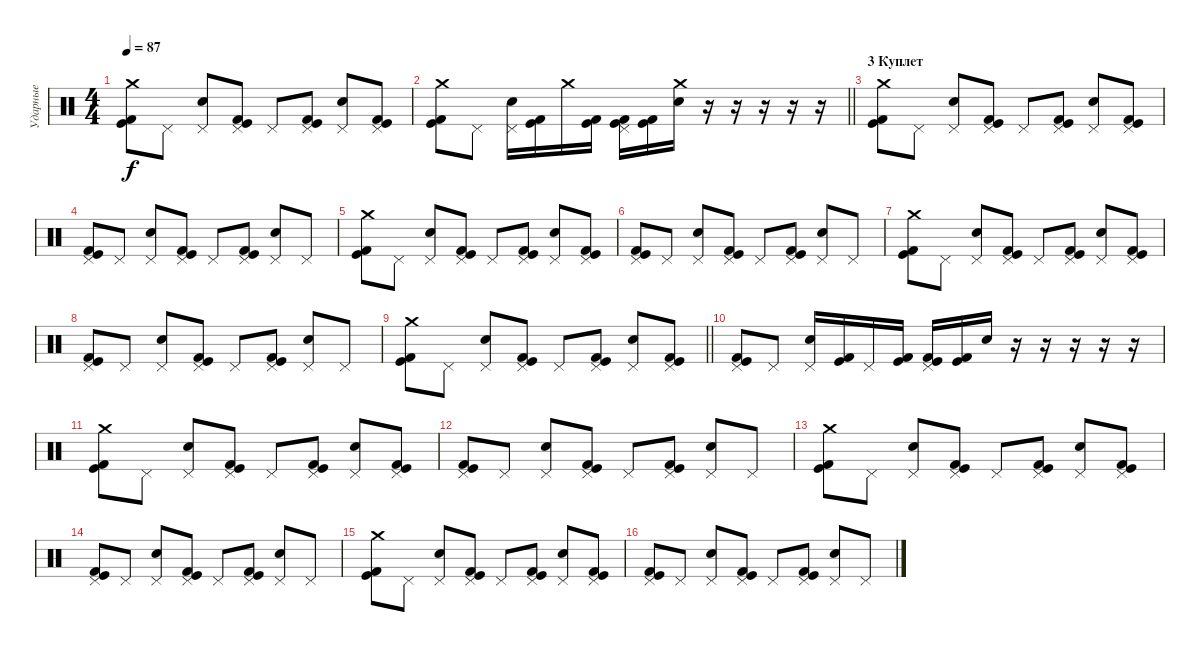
\track ("Ударные" "Ударные") {instrument percussion}
\staff {score}
\articulation defaults
\ts (4 4)
\tempo 87
\clef neutral
\ks c
("Crash medium (hit)" "Kick (hit)" "Kick (hit) 2").8{dy f} "Pedal Hi-Hat (hit)".8 ("Pedal Hi-Hat (hit)" "Electric Snare (hit)").8 ("Pedal Hi-Hat (hit)" "Kick (hit)" "Kick (hit) 2").8 "Pedal Hi-Hat (hit)".8 ("Pedal Hi-Hat (hit)" "Kick (hit)" "Kick (hit) 2").8 ("Pedal Hi-Hat (hit)" "Electric Snare (hit)").8 ("Pedal Hi-Hat (hit)" "Kick (hit)" "Kick (hit) 2").8 |
\barLineRight lightlight
("Crash medium (hit)" "Kick (hit)" "Kick (hit) 2").8 "Pedal Hi-Hat (hit)".8 ("Pedal Hi-Hat (hit)" "Electric Snare (hit)").16 ("Kick (hit)" "Kick (hit) 2").16 "Crash medium (hit)".16 ("Kick (hit)" "Kick (hit) 2").16 ("Pedal Hi-Hat (hit)" "Kick (hit)" "Kick (hit) 2").16 ("Kick (hit)" "Kick (hit) 2").16 ("Crash medium (hit)" "Electric Snare (hit)").16 r.16 r.16 r.16 r.16 r.16 |
\section ("" "3 Куплет")
("Crash medium (hit)" "Kick (hit)" "Kick (hit) 2").8 "Pedal Hi-Hat (hit)".8 ("Pedal Hi-Hat (hit)" "Electric Snare (hit)").8 ("Pedal Hi-Hat (hit)" "Kick (hit)" "Kick (hit) 2").8 "Pedal Hi-Hat (hit)".8 ("Pedal Hi-Hat (hit)" "Kick (hit)" "Kick (hit) 2").8 ("Pedal Hi-Hat (hit)" "Electric Snare (hit)").8 ("Pedal Hi-Hat (hit)" "Kick (hit)" "Kick (hit) 2").8 |
("Pedal Hi-Hat (hit)" "Kick (hit)" "Kick (hit) 2").8 "Pedal Hi-Hat (hit)".8 ("Pedal Hi-Hat (hit)" "Electric Snare (hit)").8 ("Pedal Hi-Hat (hit)" "Kick (hit)" "Kick (hit) 2").8 "Pedal Hi-Hat (hit)".8 ("Pedal Hi-Hat (hit)" "Kick (hit)" "Kick (hit) 2").8 ("Pedal Hi-Hat (hit)" "Electric Snare (hit)").8 "Pedal Hi-Hat (hit)".8 |
("Crash medium (hit)" "Kick (hit)" "Kick (hit) 2").8 "Pedal Hi-Hat (hit)".8 ("Pedal Hi-Hat (hit)" "Electric Snare (hit)").8 ("Pedal Hi-Hat (hit)" "Kick (hit)" "Kick (hit) 2").8 "Pedal Hi-Hat (hit)".8 ("Pedal Hi-Hat (hit)" "Kick (hit)" "Kick (hit) 2").8 ("Pedal Hi-Hat (hit)" "Electric Snare (hit)").8 ("Pedal Hi-Hat (hit)" "Kick (hit)" "Kick (hit) 2").8 |
("Pedal Hi-Hat (hit)" "Kick (hit)" "Kick (hit) 2").8 "Pedal Hi-Hat (hit)".8 ("Pedal Hi-Hat (hit)" "Electric Snare (hit)").8 ("Pedal Hi-Hat (hit)" "Kick (hit)" "Kick (hit) 2").8 "Pedal Hi-Hat (hit)".8 ("Pedal Hi-Hat (hit)" "Kick (hit)" "Kick (hit) 2").8 ("Pedal Hi-Hat (hit)" "Electric Snare (hit)").8 "Pedal Hi-Hat (hit)".8 |
("Crash medium (hit)" "Kick (hit)" "Kick (hit) 2").8 "Pedal Hi-Hat (hit)".8 ("Pedal Hi-Hat (hit)" "Electric Snare (hit)").8 ("Pedal Hi-Hat (hit)" "Kick (hit)" "Kick (hit) 2").8 "Pedal Hi-Hat (hit)".8 ("Pedal Hi-Hat (hit)" "Kick (hit)" "Kick (hit) 2").8 ("Pedal Hi-Hat (hit)" "Electric Snare (hit)").8 ("Pedal Hi-Hat (hit)" "Kick (hit)" "Kick (hit) 2").8 |
("Pedal Hi-Hat (hit)" "Kick (hit)" "Kick (hit) 2").8 "Pedal Hi-Hat (hit)".8 ("Pedal Hi-Hat (hit)" "Electric Snare (hit)").8 ("Pedal Hi-Hat (hit)" "Kick (hit)" "Kick (hit) 2").8 "Pedal Hi-Hat (hit)".8 ("Pedal Hi-Hat (hit)" "Kick (hit)" "Kick (hit) 2").8 ("Pedal Hi-Hat (hit)" "Electric Snare (hit)").8 "Pedal Hi-Hat (hit)".8 |
\barLineRight lightlight
("Crash medium (hit)" "Kick (hit)" "Kick (hit) 2").8 "Pedal Hi-Hat (hit)".8 ("Pedal Hi-Hat (hit)" "Electric Snare (hit)").8 ("Pedal Hi-Hat (hit)" "Kick (hit)" "Kick (hit) 2").8 "Pedal Hi-Hat (hit)".8 ("Pedal Hi-Hat (hit)" "Kick (hit)" "Kick (hit) 2").8 ("Pedal Hi-Hat (hit)" "Electric Snare (hit)").8 ("Pedal Hi-Hat (hit)" "Kick (hit)" "Kick (hit) 2").8 |
("Pedal Hi-Hat (hit)" "Kick (hit)" "Kick (hit) 2").8 "Pedal Hi-Hat (hit)".8 ("Pedal Hi-Hat (hit)" "Electric Snare (hit)").16 ("Kick (hit)" "Kick (hit) 2").16 "Pedal Hi-Hat (hit)".16 ("Kick (hit)" "Kick (hit) 2").16 ("Pedal Hi-Hat (hit)" "Kick (hit)" "Kick (hit) 2").16 ("Kick (hit)" "Kick (hit) 2").16 "Electric Snare (hit)".16 r.16 r.16 r.16 r.16 r.16 |
("Crash medium (hit)" "Kick (hit)" "Kick (hit) 2").8 "Pedal Hi-Hat (hit)".8 ("Pedal Hi-Hat (hit)" "Electric Snare (hit)").8 ("Pedal Hi-Hat (hit)" "Kick (hit)" "Kick (hit) 2").8 "Pedal Hi-Hat (hit)".8 ("Pedal Hi-Hat (hit)" "Kick (hit)" "Kick (hit) 2").8 ("Pedal Hi-Hat (hit)" "Electric Snare (hit)").8 ("Pedal Hi-Hat (hit)" "Kick (hit)" "Kick (hit) 2").8 |
("Pedal Hi-Hat (hit)" "Kick (hit)" "Kick (hit) 2").8 "Pedal Hi-Hat (hit)".8 ("Pedal Hi-Hat (hit)" "Electric Snare (hit)").8 ("Pedal Hi-Hat (hit)" "Kick (hit)" "Kick (hit) 2").8 "Pedal Hi-Hat (hit)".8 ("Pedal Hi-Hat (hit)" "Kick (hit)" "Kick (hit) 2").8 ("Pedal Hi-Hat (hit)" "Electric Snare (hit)").8 "Pedal Hi-Hat (hit)".8 |
("Crash medium (hit)" "Kick (hit)" "Kick (hit) 2").8 "Pedal Hi-Hat (hit)".8 ("Pedal Hi-Hat (hit)" "Electric Snare (hit)").8 ("Pedal Hi-Hat (hit)" "Kick (hit)" "Kick (hit) 2").8 "Pedal Hi-Hat (hit)".8 ("Pedal Hi-Hat (hit)" "Kick (hit)" "Kick (hit) 2").8 ("Pedal Hi-Hat (hit)" "Electric Snare (hit)").8 ("Pedal Hi-Hat (hit)" "Kick (hit)" "Kick (hit) 2").8 |
("Pedal Hi-Hat (hit)" "Kick (hit)" "Kick (hit) 2").8 "Pedal Hi-Hat (hit)".8 ("Pedal Hi-Hat (hit)" "Electric Snare (hit)").8 ("Pedal Hi-Hat (hit)" "Kick (hit)" "Kick (hit) 2").8 "Pedal Hi-Hat (hit)".8 ("Pedal Hi-Hat (hit)" "Kick (hit)" "Kick (hit) 2").8 ("Pedal Hi-Hat (hit)" "Electric Snare (hit)").8 "Pedal Hi-Hat (hit)".8 |
("Crash medium (hit)" "Kick (hit)" "Kick (hit) 2").8 "Pedal Hi-Hat (hit)".8 ("Pedal Hi-Hat (hit)" "Electric Snare (hit)").8 ("Pedal Hi-Hat (hit)" "Kick (hit)" "Kick (hit) 2").8 "Pedal Hi-Hat (hit)".8 ("Pedal Hi-Hat (hit)" "Kick (hit)" "Kick (hit) 2").8 ("Pedal Hi-Hat (hit)" "Electric Snare (hit)").8 ("Pedal Hi-Hat (hit)" "Kick (hit)" "Kick (hit) 2").8 |
("Pedal Hi-Hat (hit)" "Kick (hit)" "Kick (hit) 2").8 "Pedal Hi-Hat (hit)".8 ("Pedal Hi-Hat (hit)" "Electric Snare (hit)").8 ("Pedal Hi-Hat (hit)" "Kick (hit)" "Kick (hit) 2").8 "Pedal Hi-Hat (hit)".8 ("Pedal Hi-Hat (hit)" "Kick (hit)" "Kick (hit) 2").8 ("Pedal Hi-Hat (hit)" "Electric Snare (hit)").8 "Pedal Hi-Hat (hit)".8
